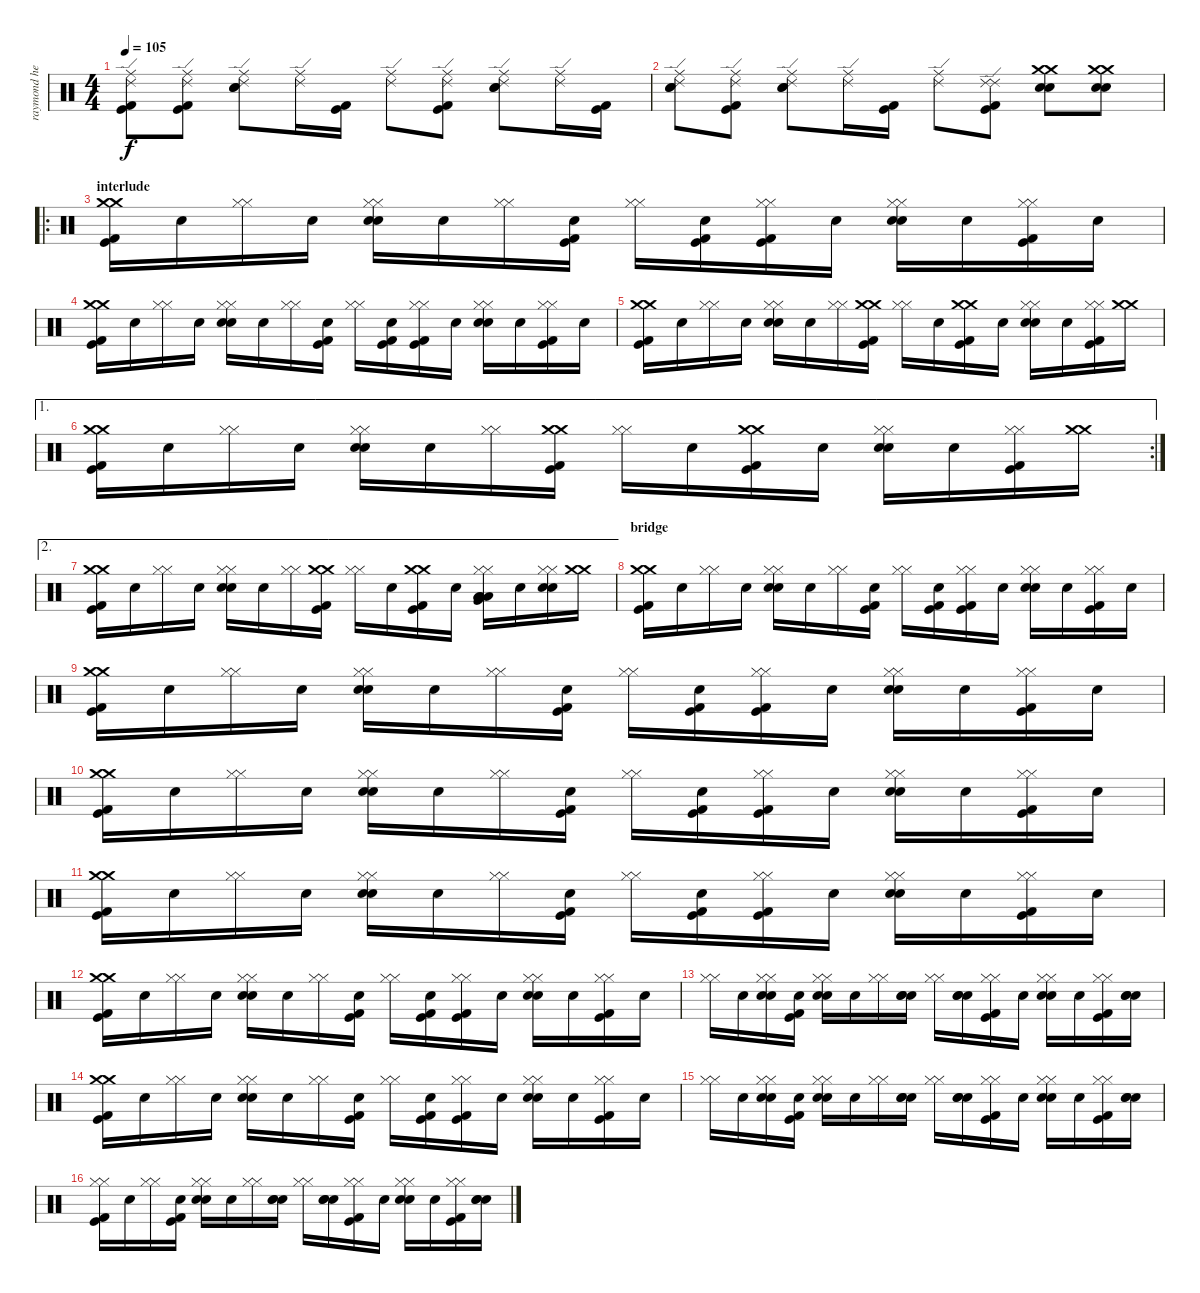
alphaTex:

\track ("raymond herrea" "raymond he") {instrument percussion}
\staff {score}
\articulation defaults
\ts (4 4)
\tempo 105
\clef neutral
\ks c
("Ride (middle)" "Ride (edge) 2" "Kick (hit)" "Kick (hit) 2").8{dy f} ("Ride (middle)" "Ride (edge) 2" "Kick (hit)" "Kick (hit) 2").8 ("Ride (middle)" "Ride (edge) 2" "Snare (hit) 2" "Electric Snare (hit)").8 ("Ride (middle)" "Ride (edge) 2").16 ("Kick (hit)" "Kick (hit) 2").16 ("Ride (middle)" "Ride (edge) 2").8 ("Ride (middle)" "Ride (edge) 2" "Kick (hit)" "Kick (hit) 2").8 ("Ride (middle)" "Ride (edge) 2" "Snare (hit) 2" "Electric Snare (hit)").8 ("Ride (middle)" "Ride (edge) 2").16 ("Kick (hit)" "Kick (hit) 2").16 |
("Ride (middle)" "Ride (edge) 2" "Snare (hit)" "Snare (hit)").8 ("Ride (middle)" "Ride (edge) 2" "Kick (hit)" "Kick (hit) 2").8 ("Ride (middle)" "Ride (edge) 2" "Snare (hit) 2" "Electric Snare (hit)").8 ("Ride (middle)" "Ride (edge) 2").16 ("Kick (hit)" "Kick (hit) 2").16 ("Ride (middle)" "Ride (edge) 2").8 ("Ride (edge) 2" "Ride (edge) 2" "Kick (hit)" "Kick (hit) 2").8 ("Crash medium (hit)" "Crash medium (hit)" "Snare (hit) 2" "Electric Snare (hit)").8 ("Crash medium (hit)" "Crash medium (hit)" "Snare (hit) 2" "Electric Snare (hit)").8 |
\ro
\section ("" "interlude")
("Crash medium (hit)" "Crash medium (hit)" "Kick (hit)" "Kick (hit) 2").16 "Snare (hit)".16 ("Hi-Hat (closed)" "Hi-Hat (closed)").16 "Snare (hit)".16 ("Hi-Hat (closed)" "Hi-Hat (closed)" "Snare (hit) 2" "Electric Snare (hit)").16 "Snare (hit)".16 ("Hi-Hat (closed)" "Hi-Hat (closed)").16 ("Snare (hit)" "Kick (hit)" "Kick (hit) 2").16 ("Hi-Hat (closed)" "Hi-Hat (closed)").16 ("Snare (hit)" "Kick (hit)" "Kick (hit) 2").16 ("Hi-Hat (closed)" "Hi-Hat (closed)" "Kick (hit)" "Kick (hit) 2").16 "Snare (hit)".16 ("Hi-Hat (closed)" "Hi-Hat (closed)" "Snare (hit) 2" "Electric Snare (hit)").16 "Snare (hit)".16 ("Hi-Hat (closed)" "Hi-Hat (closed)" "Kick (hit)" "Kick (hit) 2").16 "Snare (hit)".16 |
("Crash medium (hit)" "Crash medium (hit)" "Kick (hit)" "Kick (hit) 2").16 "Snare (hit)".16 ("Hi-Hat (closed)" "Hi-Hat (closed)").16 "Snare (hit)".16 ("Hi-Hat (closed)" "Hi-Hat (closed)" "Snare (hit) 2" "Electric Snare (hit)").16 "Snare (hit)".16 ("Hi-Hat (closed)" "Hi-Hat (closed)").16 ("Snare (hit)" "Kick (hit)" "Kick (hit) 2").16 ("Hi-Hat (closed)" "Hi-Hat (closed)").16 ("Snare (hit)" "Kick (hit)" "Kick (hit) 2").16 ("Hi-Hat (closed)" "Hi-Hat (closed)" "Kick (hit)" "Kick (hit) 2").16 "Snare (hit)".16 ("Hi-Hat (closed)" "Hi-Hat (closed)" "Snare (hit) 2" "Electric Snare (hit)").16 "Snare (hit)".16 ("Hi-Hat (closed)" "Hi-Hat (closed)" "Kick (hit)" "Kick (hit) 2").16 "Snare (hit)".16 |
("Crash medium (hit)" "Crash medium (hit)" "Kick (hit)" "Kick (hit) 2").16 "Snare (hit)".16 ("Hi-Hat (closed)" "Hi-Hat (closed)").16 "Snare (hit)".16 ("Hi-Hat (closed)" "Hi-Hat (closed)" "Snare (hit) 2" "Electric Snare (hit)").16 "Snare (hit)".16 ("Hi-Hat (closed)" "Hi-Hat (closed)").16 ("Crash medium (hit)" "Crash medium (hit)" "Kick (hit)" "Kick (hit) 2").16 ("Hi-Hat (closed)" "Hi-Hat (closed)").16 "Snare (hit)".16 ("Crash medium (hit)" "Crash medium (hit)" "Kick (hit)" "Kick (hit) 2").16 "Snare (hit)".16 ("Hi-Hat (closed)" "Hi-Hat (closed)" "Snare (hit) 2" "Electric Snare (hit)").16 "Snare (hit)".16 ("Hi-Hat (closed)" "Hi-Hat (closed)" "Kick (hit)" "Kick (hit) 2").16 ("Crash medium (hit)" "Crash medium (hit)").16 |
\ae 1
\rc 2
("Crash medium (hit)" "Crash medium (hit)" "Kick (hit)" "Kick (hit) 2").16 "Snare (hit)".16 ("Hi-Hat (closed)" "Hi-Hat (closed)").16 "Snare (hit)".16 ("Hi-Hat (closed)" "Hi-Hat (closed)" "Snare (hit) 2" "Electric Snare (hit)").16 "Snare (hit)".16 ("Hi-Hat (closed)" "Hi-Hat (closed)").16 ("Crash medium (hit)" "Crash medium (hit)" "Kick (hit)" "Kick (hit) 2").16 ("Hi-Hat (closed)" "Hi-Hat (closed)").16 "Snare (hit)".16 ("Crash medium (hit)" "Crash medium (hit)" "Kick (hit)" "Kick (hit) 2").16 "Snare (hit)".16 ("Hi-Hat (closed)" "Hi-Hat (closed)" "Snare (hit) 2" "Electric Snare (hit)").16 "Snare (hit)".16 ("Hi-Hat (closed)" "Hi-Hat (closed)" "Kick (hit)" "Kick (hit) 2").16 ("Crash medium (hit)" "Crash medium (hit)").16 |
\ae 2
("Crash medium (hit)" "Crash medium (hit)" "Kick (hit)" "Kick (hit) 2").16 "Snare (hit)".16 ("Hi-Hat (closed)" "Hi-Hat (closed)").16 "Snare (hit)".16 ("Hi-Hat (closed)" "Hi-Hat (closed)" "Snare (hit) 2" "Electric Snare (hit)").16 "Snare (hit)".16 ("Hi-Hat (closed)" "Hi-Hat (closed)").16 ("Crash medium (hit)" "Crash medium (hit)" "Kick (hit)" "Kick (hit) 2").16 ("Hi-Hat (closed)" "Hi-Hat (closed)").16 "Snare (hit)".16 ("Crash medium (hit)" "Crash medium (hit)" "Kick (hit)" "Kick (hit) 2").16 "Snare (hit)".16 ("Hi-Hat (closed)" "Hi-Hat (closed)" "Low Floor Tom (hit)" "Low Floor Tom (hit)" "Low Floor Tom (hit)" "Very Low Tom (hit)").16 "Snare (hit)".16 ("Hi-Hat (closed)" "Hi-Hat (closed)" "Snare (hit)" "Snare (hit)").16 ("Crash medium (hit)" "Crash medium (hit)").16 |
\section ("" "bridge")
("Crash medium (hit)" "Crash medium (hit)" "Kick (hit)" "Kick (hit) 2").16 "Snare (hit)".16 ("Hi-Hat (closed)" "Hi-Hat (closed)").16 "Snare (hit)".16 ("Hi-Hat (closed)" "Hi-Hat (closed)" "Snare (hit) 2" "Electric Snare (hit)").16 "Snare (hit)".16 ("Hi-Hat (closed)" "Hi-Hat (closed)").16 ("Snare (hit)" "Kick (hit)" "Kick (hit) 2").16 ("Hi-Hat (closed)" "Hi-Hat (closed)").16 ("Snare (hit)" "Kick (hit)" "Kick (hit) 2").16 ("Hi-Hat (closed)" "Hi-Hat (closed)" "Kick (hit)" "Kick (hit) 2").16 "Snare (hit)".16 ("Hi-Hat (closed)" "Hi-Hat (closed)" "Snare (hit) 2" "Electric Snare (hit)").16 "Snare (hit)".16 ("Hi-Hat (closed)" "Hi-Hat (closed)" "Kick (hit)" "Kick (hit) 2").16 "Snare (hit)".16 |
("Crash medium (hit)" "Crash medium (hit)" "Kick (hit)" "Kick (hit) 2").16 "Snare (hit)".16 ("Hi-Hat (closed)" "Hi-Hat (closed)").16 "Snare (hit)".16 ("Hi-Hat (closed)" "Hi-Hat (closed)" "Snare (hit) 2" "Electric Snare (hit)").16 "Snare (hit)".16 ("Hi-Hat (closed)" "Hi-Hat (closed)").16 ("Snare (hit)" "Kick (hit)" "Kick (hit) 2").16 ("Hi-Hat (closed)" "Hi-Hat (closed)").16 ("Snare (hit)" "Kick (hit)" "Kick (hit) 2").16 ("Hi-Hat (closed)" "Hi-Hat (closed)" "Kick (hit)" "Kick (hit) 2").16 "Snare (hit)".16 ("Hi-Hat (closed)" "Hi-Hat (closed)" "Snare (hit) 2" "Electric Snare (hit)").16 "Snare (hit)".16 ("Hi-Hat (closed)" "Hi-Hat (closed)" "Kick (hit)" "Kick (hit) 2").16 "Snare (hit)".16 |
("Crash medium (hit)" "Crash medium (hit)" "Kick (hit)" "Kick (hit) 2").16 "Snare (hit)".16 ("Hi-Hat (closed)" "Hi-Hat (closed)").16 "Snare (hit)".16 ("Hi-Hat (closed)" "Hi-Hat (closed)" "Snare (hit) 2" "Electric Snare (hit)").16 "Snare (hit)".16 ("Hi-Hat (closed)" "Hi-Hat (closed)").16 ("Snare (hit)" "Kick (hit)" "Kick (hit) 2").16 ("Hi-Hat (closed)" "Hi-Hat (closed)").16 ("Snare (hit)" "Kick (hit)" "Kick (hit) 2").16 ("Hi-Hat (closed)" "Hi-Hat (closed)" "Kick (hit)" "Kick (hit) 2").16 "Snare (hit)".16 ("Hi-Hat (closed)" "Hi-Hat (closed)" "Snare (hit) 2" "Electric Snare (hit)").16 "Snare (hit)".16 ("Hi-Hat (closed)" "Hi-Hat (closed)" "Kick (hit)" "Kick (hit) 2").16 "Snare (hit)".16 |
("Crash medium (hit)" "Crash medium (hit)" "Kick (hit)" "Kick (hit) 2").16 "Snare (hit)".16 ("Hi-Hat (closed)" "Hi-Hat (closed)").16 "Snare (hit)".16 ("Hi-Hat (closed)" "Hi-Hat (closed)" "Snare (hit) 2" "Electric Snare (hit)").16 "Snare (hit)".16 ("Hi-Hat (closed)" "Hi-Hat (closed)").16 ("Snare (hit)" "Kick (hit)" "Kick (hit) 2").16 ("Hi-Hat (closed)" "Hi-Hat (closed)").16 ("Snare (hit)" "Kick (hit)" "Kick (hit) 2").16 ("Hi-Hat (closed)" "Hi-Hat (closed)" "Kick (hit)" "Kick (hit) 2").16 "Snare (hit)".16 ("Hi-Hat (closed)" "Hi-Hat (closed)" "Snare (hit) 2" "Electric Snare (hit)").16 "Snare (hit)".16 ("Hi-Hat (closed)" "Hi-Hat (closed)" "Kick (hit)" "Kick (hit) 2").16 "Snare (hit)".16 |
("Crash medium (hit)" "Crash medium (hit)" "Kick (hit)" "Kick (hit) 2").16 "Snare (hit)".16 ("Hi-Hat (closed)" "Hi-Hat (closed)").16 "Snare (hit)".16 ("Hi-Hat (closed)" "Hi-Hat (closed)" "Snare (hit) 2" "Electric Snare (hit)").16 "Snare (hit)".16 ("Hi-Hat (closed)" "Hi-Hat (closed)").16 ("Snare (hit)" "Kick (hit)" "Kick (hit) 2").16 ("Hi-Hat (closed)" "Hi-Hat (closed)").16 ("Snare (hit)" "Kick (hit)" "Kick (hit) 2").16 ("Hi-Hat (closed)" "Hi-Hat (closed)" "Kick (hit)" "Kick (hit) 2").16 "Snare (hit)".16 ("Hi-Hat (closed)" "Hi-Hat (closed)" "Snare (hit) 2" "Electric Snare (hit)").16 "Snare (hit)".16 ("Hi-Hat (closed)" "Hi-Hat (closed)" "Kick (hit)" "Kick (hit) 2").16 "Snare (hit)".16 |
("Hi-Hat (closed)" "Hi-Hat (closed)").16 "Snare (hit)".16 ("Hi-Hat (closed)" "Hi-Hat (closed)" "Electric Snare (hit)" "Snare (hit) 2").16 ("Snare (hit)" "Kick (hit)" "Kick (hit) 2").16 ("Hi-Hat (closed)" "Hi-Hat (closed)" "Snare (hit) 2" "Electric Snare (hit)").16 "Snare (hit)".16 ("Hi-Hat (closed)" "Hi-Hat (closed)").16 ("Snare (hit)" "Snare (hit) 2" "Electric Snare (hit)").16 ("Hi-Hat (closed)" "Hi-Hat (closed)").16 ("Snare (hit)" "Snare (hit) 2" "Electric Snare (hit)").16 ("Hi-Hat (closed)" "Hi-Hat (closed)" "Kick (hit)" "Kick (hit) 2").16 "Snare (hit)".16 ("Hi-Hat (closed)" "Hi-Hat (closed)" "Snare (hit) 2" "Electric Snare (hit)").16 "Snare (hit)".16 ("Hi-Hat (closed)" "Hi-Hat (closed)" "Kick (hit)" "Kick (hit) 2").16 ("Snare (hit)" "Snare (hit) 2" "Electric Snare (hit)").16 |
("Crash medium (hit)" "Crash medium (hit)" "Kick (hit)" "Kick (hit) 2").16 "Snare (hit)".16 ("Hi-Hat (closed)" "Hi-Hat (closed)").16 "Snare (hit)".16 ("Hi-Hat (closed)" "Hi-Hat (closed)" "Snare (hit) 2" "Electric Snare (hit)").16 "Snare (hit)".16 ("Hi-Hat (closed)" "Hi-Hat (closed)").16 ("Snare (hit)" "Kick (hit)" "Kick (hit) 2").16 ("Hi-Hat (closed)" "Hi-Hat (closed)").16 ("Snare (hit)" "Kick (hit)" "Kick (hit) 2").16 ("Hi-Hat (closed)" "Hi-Hat (closed)" "Kick (hit)" "Kick (hit) 2").16 "Snare (hit)".16 ("Hi-Hat (closed)" "Hi-Hat (closed)" "Snare (hit) 2" "Electric Snare (hit)").16 "Snare (hit)".16 ("Hi-Hat (closed)" "Hi-Hat (closed)" "Kick (hit)" "Kick (hit) 2").16 "Snare (hit)".16 |
("Hi-Hat (closed)" "Hi-Hat (closed)").16 "Snare (hit)".16 ("Hi-Hat (closed)" "Hi-Hat (closed)" "Electric Snare (hit)" "Snare (hit) 2").16 ("Snare (hit)" "Kick (hit)" "Kick (hit) 2").16 ("Hi-Hat (closed)" "Hi-Hat (closed)" "Snare (hit) 2" "Electric Snare (hit)").16 "Snare (hit)".16 ("Hi-Hat (closed)" "Hi-Hat (closed)").16 ("Snare (hit)" "Snare (hit) 2" "Electric Snare (hit)").16 ("Hi-Hat (closed)" "Hi-Hat (closed)").16 ("Snare (hit)" "Snare (hit) 2" "Electric Snare (hit)").16 ("Hi-Hat (closed)" "Hi-Hat (closed)" "Kick (hit)" "Kick (hit) 2").16 "Snare (hit)".16 ("Hi-Hat (closed)" "Hi-Hat (closed)" "Snare (hit) 2" "Electric Snare (hit)").16 "Snare (hit)".16 ("Hi-Hat (closed)" "Hi-Hat (closed)" "Kick (hit)" "Kick (hit) 2").16 ("Snare (hit)" "Snare (hit) 2" "Electric Snare (hit)").16 |
("Hi-Hat (closed)" "Hi-Hat (closed)" "Kick (hit)" "Kick (hit) 2").16 "Snare (hit)".16 ("Hi-Hat (closed)" "Hi-Hat (closed)").16 ("Snare (hit)" "Kick (hit)" "Kick (hit) 2").16 ("Hi-Hat (closed)" "Hi-Hat (closed)" "Snare (hit) 2" "Electric Snare (hit)").16 "Snare (hit)".16 ("Hi-Hat (closed)" "Hi-Hat (closed)").16 ("Snare (hit)" "Snare (hit) 2" "Electric Snare (hit)").16 ("Hi-Hat (closed)" "Hi-Hat (closed)").16 ("Snare (hit)" "Snare (hit) 2" "Electric Snare (hit)").16 ("Hi-Hat (closed)" "Hi-Hat (closed)" "Kick (hit)" "Kick (hit) 2").16 "Snare (hit)".16 ("Hi-Hat (closed)" "Hi-Hat (closed)" "Snare (hit) 2" "Electric Snare (hit)").16 "Snare (hit)".16 ("Hi-Hat (closed)" "Hi-Hat (closed)" "Kick (hit)" "Kick (hit) 2").16 ("Snare (hit)" "Snare (hit) 2" "Electric Snare (hit)").16
